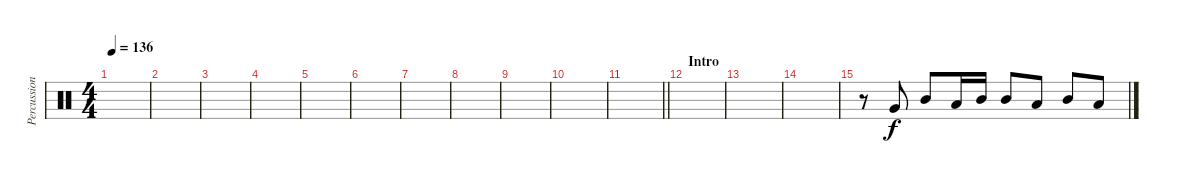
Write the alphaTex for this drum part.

\track ("Percussion (Guitar)" "Percussion") {instrument percussion}
\staff {score}
\articulation defaults
\ts (4 4)
\tempo 136
\clef neutral
\ks c
|
|
|
|
|
|
|
|
|
|
\barLineRight lightlight
|
\section ("" "Intro")
|
|
|
r.8 "Very Low Tom (hit)".8 "Mid Tom (hit)".8 "Low Tom (hit)".16 "Mid Tom (hit)".16 "Mid Tom (hit)".8 "Low Tom (hit)".8 "Mid Tom (hit)".8 "Low Tom (hit)".8
